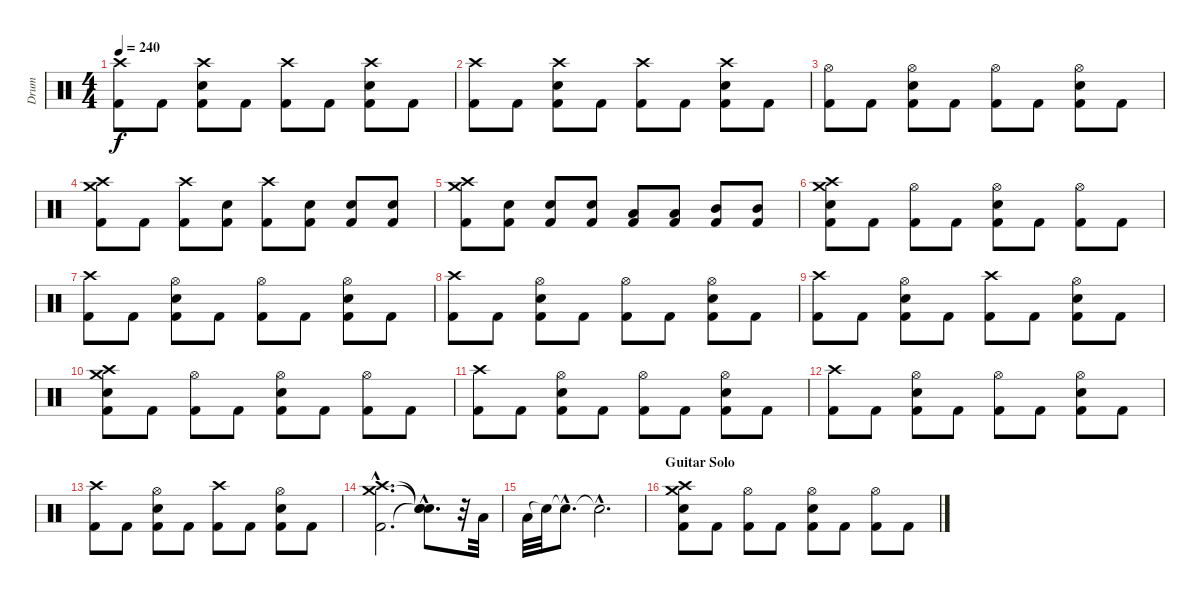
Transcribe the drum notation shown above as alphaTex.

\track ("Drum" "Drum") {instrument percussion}
\staff {score}
\articulation defaults
\ts (4 4)
\tempo 240
\clef neutral
\ks c
("Crash high (hit)" "Kick (hit) 2").8{dy f} "Kick (hit) 2".8 ("Crash high (hit)" "Kick (hit) 2" "Electric Snare (hit)").8 "Kick (hit) 2".8 ("Crash high (hit)" "Kick (hit) 2").8 "Kick (hit) 2".8 ("Crash high (hit)" "Kick (hit) 2" "Electric Snare (hit)").8 "Kick (hit) 2".8 |
("Crash high (hit)" "Kick (hit) 2").8 "Kick (hit) 2".8 ("Crash high (hit)" "Kick (hit) 2" "Electric Snare (hit)").8 "Kick (hit) 2".8 ("Crash high (hit)" "Kick (hit) 2").8 "Kick (hit) 2".8 ("Crash high (hit)" "Kick (hit) 2" "Electric Snare (hit)").8 "Kick (hit) 2".8 |
("Hi-Hat (open)" "Kick (hit) 2").8 "Kick (hit) 2".8 ("Hi-Hat (open)" "Kick (hit) 2" "Electric Snare (hit)").8 "Kick (hit) 2".8 ("Hi-Hat (open)" "Kick (hit) 2").8 "Kick (hit) 2".8 ("Hi-Hat (open)" "Kick (hit) 2" "Electric Snare (hit)").8 "Kick (hit) 2".8 |
("Crash high (hit)" "Kick (hit) 2" "Crash medium (hit)").8 "Kick (hit) 2".8 ("Crash high (hit)" "Kick (hit) 2").8 ("Kick (hit) 2" "Electric Snare (hit)").8 ("Crash high (hit)" "Kick (hit) 2").8 ("Kick (hit) 2" "Electric Snare (hit)").8 ("Kick (hit) 2" "Electric Snare (hit)").8 ("Kick (hit) 2" "Electric Snare (hit)").8 |
("Crash high (hit)" "Kick (hit) 2" "Crash medium (hit)").8 ("Kick (hit) 2" "Electric Snare (hit)").8 ("Kick (hit) 2" "Electric Snare (hit)").8 ("Kick (hit) 2" "Electric Snare (hit)").8 ("Kick (hit) 2" "Low Tom (hit)").8 ("Kick (hit) 2" "Low Tom (hit)").8 ("Kick (hit) 2" "Mid Tom (hit)").8 ("Kick (hit) 2" "Mid Tom (hit)").8 |
("Crash high (hit)" "Kick (hit) 2" "Crash medium (hit)" "Electric Snare (hit)").8 "Kick (hit) 2".8 ("Hi-Hat (open)" "Kick (hit) 2").8 "Kick (hit) 2".8 ("Hi-Hat (open)" "Kick (hit) 2" "Electric Snare (hit)").8 "Kick (hit) 2".8 ("Hi-Hat (open)" "Kick (hit) 2").8 "Kick (hit) 2".8 |
("Crash high (hit)" "Kick (hit) 2").8 "Kick (hit) 2".8 ("Hi-Hat (open)" "Kick (hit) 2" "Electric Snare (hit)").8 "Kick (hit) 2".8 ("Hi-Hat (open)" "Kick (hit) 2").8 "Kick (hit) 2".8 ("Hi-Hat (open)" "Kick (hit) 2" "Electric Snare (hit)").8 "Kick (hit) 2".8 |
("Crash high (hit)" "Kick (hit) 2").8 "Kick (hit) 2".8 ("Hi-Hat (open)" "Kick (hit) 2" "Electric Snare (hit)").8 "Kick (hit) 2".8 ("Hi-Hat (open)" "Kick (hit) 2").8 "Kick (hit) 2".8 ("Hi-Hat (open)" "Kick (hit) 2" "Electric Snare (hit)").8 "Kick (hit) 2".8 |
("Crash high (hit)" "Kick (hit) 2").8 "Kick (hit) 2".8 ("Hi-Hat (open)" "Kick (hit) 2" "Electric Snare (hit)").8 "Kick (hit) 2".8 ("Crash high (hit)" "Kick (hit) 2").8 "Kick (hit) 2".8 ("Hi-Hat (open)" "Kick (hit) 2" "Electric Snare (hit)").8 "Kick (hit) 2".8 |
("Crash high (hit)" "Kick (hit) 2" "Crash medium (hit)" "Electric Snare (hit)").8 "Kick (hit) 2".8 ("Hi-Hat (open)" "Kick (hit) 2").8 "Kick (hit) 2".8 ("Hi-Hat (open)" "Kick (hit) 2" "Electric Snare (hit)").8 "Kick (hit) 2".8 ("Hi-Hat (open)" "Kick (hit) 2").8 "Kick (hit) 2".8 |
("Crash high (hit)" "Kick (hit) 2").8 "Kick (hit) 2".8 ("Hi-Hat (open)" "Kick (hit) 2" "Electric Snare (hit)").8 "Kick (hit) 2".8 ("Hi-Hat (open)" "Kick (hit) 2").8 "Kick (hit) 2".8 ("Hi-Hat (open)" "Kick (hit) 2" "Electric Snare (hit)").8 "Kick (hit) 2".8 |
("Crash high (hit)" "Kick (hit) 2").8 "Kick (hit) 2".8 ("Hi-Hat (open)" "Kick (hit) 2" "Electric Snare (hit)").8 "Kick (hit) 2".8 ("Hi-Hat (open)" "Kick (hit) 2").8 "Kick (hit) 2".8 ("Hi-Hat (open)" "Kick (hit) 2" "Electric Snare (hit)").8 "Kick (hit) 2".8 |
("Crash high (hit)" "Kick (hit) 2").8 "Kick (hit) 2".8 ("Hi-Hat (open)" "Kick (hit) 2" "Electric Snare (hit)").8 "Kick (hit) 2".8 ("Crash high (hit)" "Kick (hit) 2").8 "Kick (hit) 2".8 ("Hi-Hat (open)" "Kick (hit) 2" "Electric Snare (hit)").8 "Kick (hit) 2".8 |
("Crash high (hit)"{hac} "Kick (hit) 2"{hac} "Crash medium (hit)"{hac}).2{d} ("Snare (hit)"{hac t} "Snare (hit)"{hac t} "Snare (hit)"{hac t}).8{d} r.32 "Low Floor Tom (hit)".32 |
"Low Floor Tom (hit)".32 "Snare (hit)"{t}.32 "Snare (hit)"{hac t}.8{d} "Snare (hit)"{hac t}.2{d} |
\section ("" "Guitar Solo")
("Crash high (hit)" "Kick (hit) 2" "Crash medium (hit)" "Electric Snare (hit)").8 "Kick (hit) 2".8 ("Hi-Hat (open)" "Kick (hit) 2").8 "Kick (hit) 2".8 ("Hi-Hat (open)" "Kick (hit) 2" "Electric Snare (hit)").8 "Kick (hit) 2".8 ("Hi-Hat (open)" "Kick (hit) 2").8 "Kick (hit) 2".8
